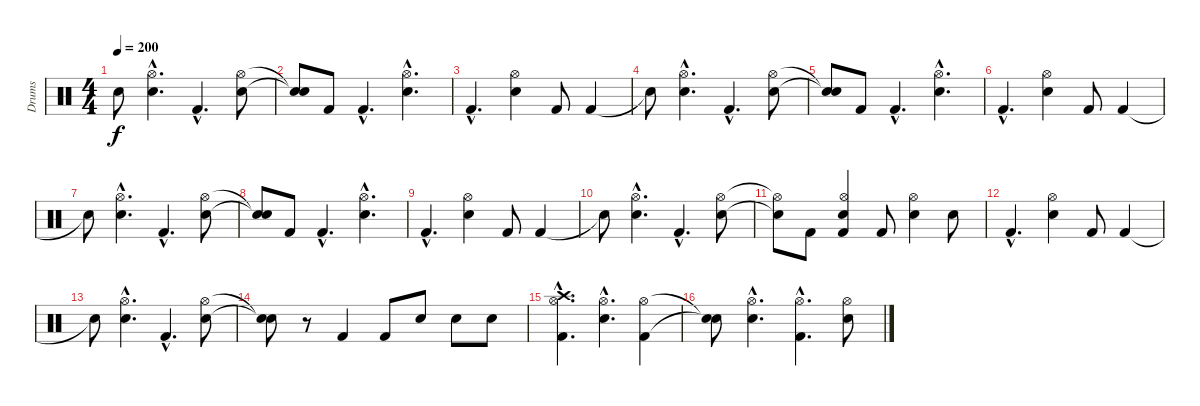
\track ("Drums" "Drums") {instrument percussion}
\staff {score}
\articulation defaults
\ts (4 4)
\tempo 200
\clef neutral
\ks c "Snare (hit)"{t}.8{dy f}
("Hi-Hat (open)"{hac} "Snare (hit) 2"{hac}).4{d} "Kick (hit) 2"{hac}.4{d} ("Hi-Hat (open)" "Snare (hit) 2").8 |
("Snare (hit)"{t} "Snare (hit)"{t}).8 "Kick (hit) 2".8 "Kick (hit) 2"{hac}.4{d} ("Hi-Hat (open)"{hac} "Snare (hit) 2"{hac}).4{d} |
"Kick (hit) 2"{hac}.4{d} ("Hi-Hat (open)" "Snare (hit) 2").4 "Kick (hit) 2".8 "Kick (hit) 2".4 |
"Snare (hit)"{t}.8 ("Hi-Hat (open)"{hac} "Snare (hit) 2"{hac}).4{d} "Kick (hit) 2"{hac}.4{d} ("Hi-Hat (open)" "Snare (hit) 2").8 |
("Snare (hit)"{t} "Snare (hit)"{t}).8 "Kick (hit) 2".8 "Kick (hit) 2"{hac}.4{d} ("Hi-Hat (open)"{hac} "Snare (hit) 2"{hac}).4{d} |
"Kick (hit) 2"{hac}.4{d} ("Hi-Hat (open)" "Snare (hit) 2").4 "Kick (hit) 2".8 "Kick (hit) 2".4 |
"Snare (hit)"{t}.8 ("Hi-Hat (open)"{hac} "Snare (hit) 2"{hac}).4{d} "Kick (hit) 2"{hac}.4{d} ("Hi-Hat (open)" "Snare (hit) 2").8 |
("Snare (hit)"{t} "Snare (hit)"{t}).8 "Kick (hit) 2".8 "Kick (hit) 2"{hac}.4{d} ("Hi-Hat (open)"{hac} "Snare (hit) 2"{hac}).4{d} |
"Kick (hit) 2"{hac}.4{d} ("Hi-Hat (open)" "Snare (hit) 2").4 "Kick (hit) 2".8 "Kick (hit) 2".4 |
"Snare (hit)"{t}.8 ("Hi-Hat (open)"{hac} "Snare (hit) 2"{hac}).4{d} "Kick (hit) 2"{hac}.4{d} ("Hi-Hat (open)" "Snare (hit) 2").8 |
("Hi-Hat (open)"{t} "Snare (hit) 2"{t}).8 "Kick (hit) 2".8 ("Hi-Hat (open)" "Snare (hit) 2" "Kick (hit) 2").4 "Kick (hit) 2".8 ("Hi-Hat (open)" "Snare (hit) 2").4 "Snare (hit) 2".8 |
"Kick (hit) 2"{hac}.4{d} ("Hi-Hat (open)" "Snare (hit) 2").4 "Kick (hit) 2".8 "Kick (hit) 2".4 |
"Snare (hit)"{t}.8 ("Hi-Hat (open)"{hac} "Snare (hit) 2"{hac}).4{d} "Kick (hit) 2"{hac}.4{d} ("Hi-Hat (open)" "Snare (hit) 2").8 |
("Snare (hit)"{t} "Snare (hit)"{t}).8 r.8 "Kick (hit) 2".4 "Kick (hit) 2".8 "Snare (hit) 2".8 "Snare (hit) 2".8 "Snare (hit) 2".8 |
("Crash high (hit)"{hac} "Hi-Hat (open)"{hac} "Kick (hit) 2"{hac}).4{d} ("Hi-Hat (open)"{hac} "Snare (hit) 2"{hac}).4{d} ("Hi-Hat (open)" "Kick (hit) 2").4 |
("Snare (hit)"{t} "Snare (hit)"{t}).8 ("Hi-Hat (open)"{hac} "Snare (hit) 2"{hac}).4{d} ("Hi-Hat (open)"{hac} "Kick (hit) 2"{hac}).4{d} ("Hi-Hat (open)" "Snare (hit) 2").8
